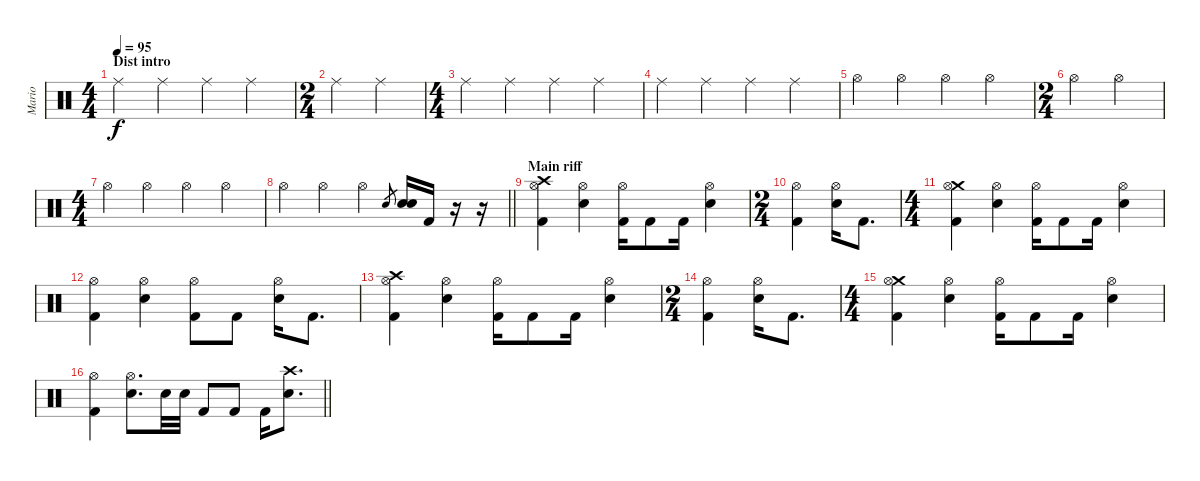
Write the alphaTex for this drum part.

\track ("Mario" "Mario") {instrument percussion}
\staff {score}
\articulation defaults
\ts (4 4)
\section ("" "Dist intro")
\tempo 95
\clef neutral
\ks c "Ride (middle)".4{dy f} "Ride (middle)".4 "Ride (middle)".4 "Ride (middle)".4
|
\ts (2 4)
"Ride (middle)".4 "Ride (middle)".4 |
\ts (4 4)
"Ride (middle)".4 "Ride (middle)".4 "Ride (middle)".4 "Ride (middle)".4 |
"Ride (middle)".4 "Ride (middle)".4 "Ride (middle)".4 "Ride (middle)".4 |
"Hi-Hat (open)".4 "Hi-Hat (open)".4 "Hi-Hat (open)".4 "Hi-Hat (open)".4 |
\ts (2 4)
"Hi-Hat (open)".4 "Hi-Hat (open)".4 |
\ts (4 4)
"Hi-Hat (open)".4 "Hi-Hat (open)".4 "Hi-Hat (open)".4 "Hi-Hat (open)".4 |
\barLineRight lightlight "Hi-Hat (open)".4 "Hi-Hat (open)".4 "Hi-Hat (open)".4 "Electric Snare (hit)".8{gr}
("Electric Snare (hit)" "Electric Snare (hit)").16 "Kick (hit) 2".16 r.16 r.16 |
\section ("" "Main riff")
("Crash high (hit)" "Hi-Hat (open)" "Kick (hit) 2").4 ("Hi-Hat (open)" "Electric Snare (hit)").4 ("Hi-Hat (open)" "Kick (hit) 2").16 "Kick (hit) 2".8 "Kick (hit) 2".16 ("Hi-Hat (open)" "Electric Snare (hit)").4 |
\ts (2 4)
("Hi-Hat (open)" "Kick (hit) 2").4 ("Hi-Hat (open)" "Electric Snare (hit)").16 "Kick (hit) 2".8{d} |
\ts (4 4)
("Crash medium (hit)" "Hi-Hat (open)" "Kick (hit) 2").4 ("Hi-Hat (open)" "Electric Snare (hit)").4 ("Hi-Hat (open)" "Kick (hit) 2").16 "Kick (hit) 2".8 "Kick (hit) 2".16 ("Hi-Hat (open)" "Electric Snare (hit)").4 |
("Hi-Hat (open)" "Kick (hit) 2").4 ("Hi-Hat (open)" "Electric Snare (hit)").4 ("Hi-Hat (open)" "Kick (hit) 2").8 "Kick (hit) 2".8 ("Hi-Hat (open)" "Electric Snare (hit)").16 "Kick (hit) 2".8{d} |
("Crash high (hit)" "Hi-Hat (open)" "Kick (hit) 2").4 ("Hi-Hat (open)" "Electric Snare (hit)").4 ("Hi-Hat (open)" "Kick (hit) 2").16 "Kick (hit) 2".8 "Kick (hit) 2".16 ("Hi-Hat (open)" "Electric Snare (hit)").4 |
\ts (2 4)
("Hi-Hat (open)" "Kick (hit) 2").4 ("Hi-Hat (open)" "Electric Snare (hit)").16 "Kick (hit) 2".8{d} |
\ts (4 4)
("Crash medium (hit)" "Hi-Hat (open)" "Kick (hit) 2").4 ("Hi-Hat (open)" "Electric Snare (hit)").4 ("Hi-Hat (open)" "Kick (hit) 2").16 "Kick (hit) 2".8 "Kick (hit) 2".16 ("Hi-Hat (open)" "Electric Snare (hit)").4 |
\barLineRight lightlight
("Hi-Hat (open)" "Kick (hit) 2").4 ("Hi-Hat (open)" "Electric Snare (hit)").8{d} "Electric Snare (hit)".32 "Electric Snare (hit)".32 "Kick (hit) 2".8 "Kick (hit) 2".8 "Kick (hit) 2".16 ("Crash high (hit)" "Electric Snare (hit)").8{d}
